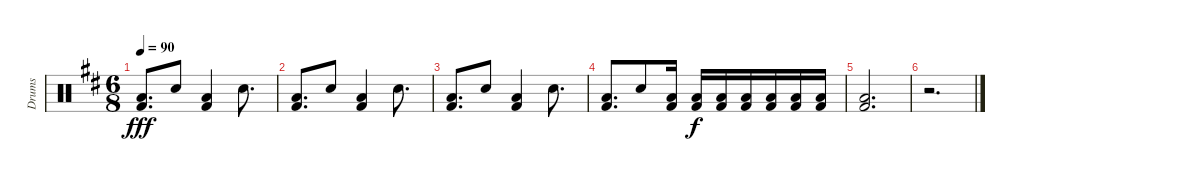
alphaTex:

\track ("Drums" "Drums") {instrument percussion}
\staff {score}
\articulation defaults
\ts (6 8)
\tempo 90
\clef neutral
\ks d
("Low Floor Tom (hit)" "Kick (hit) 2").8{d dy fff} "Electric Snare (hit)".8 ("Low Floor Tom (hit)" "Kick (hit) 2").4 "Electric Snare (hit)".8{d} |
("Low Floor Tom (hit)" "Kick (hit) 2").8{d} "Electric Snare (hit)".8 ("Low Floor Tom (hit)" "Kick (hit) 2").4 "Electric Snare (hit)".8{d} |
("Low Floor Tom (hit)" "Kick (hit) 2").8{d} "Electric Snare (hit)".8 ("Low Floor Tom (hit)" "Kick (hit) 2").4 "Electric Snare (hit)".8{d} |
("Low Floor Tom (hit)" "Kick (hit) 2").8{d} "Electric Snare (hit)".8 ("Low Floor Tom (hit)" "Kick (hit) 2").16 ("Low Floor Tom (hit)" "Kick (hit) 2").16{dy f} ("Low Floor Tom (hit)" "Kick (hit) 2").16 ("Low Floor Tom (hit)" "Kick (hit) 2").16 ("Low Floor Tom (hit)" "Kick (hit) 2").16 ("Low Floor Tom (hit)" "Kick (hit) 2").16 ("Low Floor Tom (hit)" "Kick (hit) 2").16 |
("Low Floor Tom (hit)" "Kick (hit) 2").2{d} |
r.2{d}
